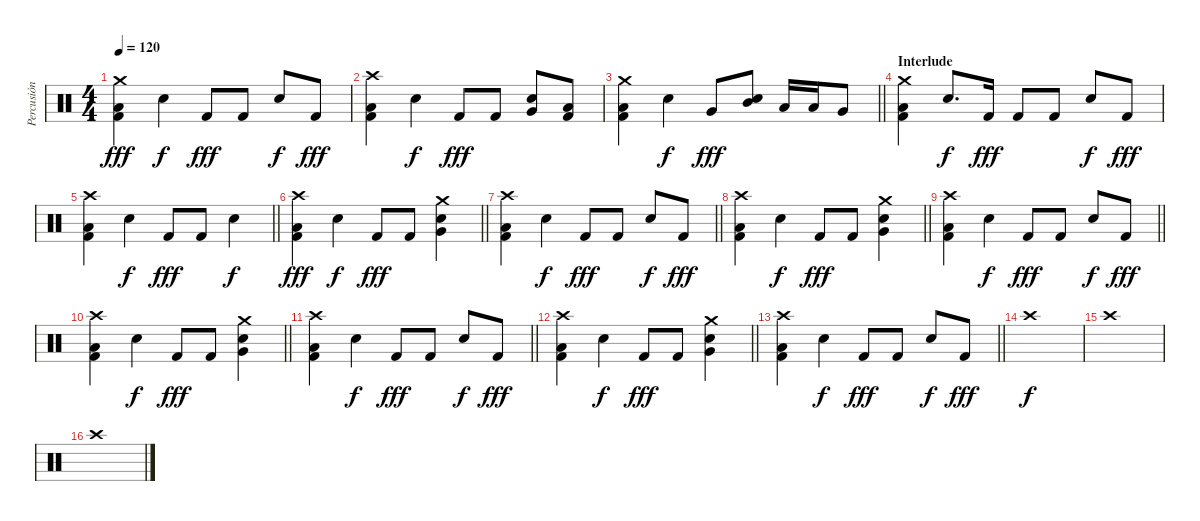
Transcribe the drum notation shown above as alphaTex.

\track ("Percusión" "Percusión") {instrument percussion}
\staff {score}
\articulation defaults
\ts (4 4)
\tempo 120
\clef neutral
\ks c
("Crash medium (hit)" "Low Floor Tom (hit)" "Kick (hit) 2").4{dy fff} "Electric Snare (hit)".4{dy f} "Kick (hit) 2".8{dy fff} "Kick (hit) 2".8 "Electric Snare (hit)".8{dy f} "Kick (hit) 2".8{dy fff} |
("Crash high (hit)" "Low Floor Tom (hit)" "Kick (hit) 2").4 "Electric Snare (hit)".4{dy f} "Kick (hit) 2".8{dy fff} "Kick (hit) 2".8 ("Electric Snare (hit)" "Very Low Tom (hit)").8 ("Low Floor Tom (hit)" "Kick (hit) 2").8 |
\barLineRight lightlight
("Crash medium (hit)" "Low Floor Tom (hit)" "Kick (hit) 2").4 "Electric Snare (hit)".4{dy f} "Very Low Tom (hit)".8{dy fff} ("Mid Tom (hit)" "Electric Snare (hit)").8 "Low Tom (hit)".16 "Low Tom (hit)".16 "Very Low Tom (hit)".8 |
\section ("" "Interlude")
("Crash medium (hit)" "Low Floor Tom (hit)" "Kick (hit) 2").4 "Electric Snare (hit)".8{d dy f} "Kick (hit) 2".16{dy fff} "Kick (hit) 2".8 "Kick (hit) 2".8 "Electric Snare (hit)".8{dy f} "Kick (hit) 2".8{dy fff} |
\barLineRight lightlight
("Crash high (hit)" "Low Floor Tom (hit)" "Kick (hit) 2").4 "Electric Snare (hit)".4{dy f} "Kick (hit) 2".8{dy fff} "Kick (hit) 2".8 "Electric Snare (hit)".4{dy f} |
\barLineRight lightlight
("Crash high (hit)" "Low Floor Tom (hit)" "Kick (hit) 2").4{dy fff} "Electric Snare (hit)".4{dy f} "Kick (hit) 2".8{dy fff} "Kick (hit) 2".8 ("Crash medium (hit)" "Electric Snare (hit)" "Very Low Tom (hit)").4 |
\barLineRight lightlight
("Crash high (hit)" "Low Floor Tom (hit)" "Kick (hit) 2").4 "Electric Snare (hit)".4{dy f} "Kick (hit) 2".8{dy fff} "Kick (hit) 2".8 "Electric Snare (hit)".8{dy f} "Kick (hit) 2".8{dy fff} |
\barLineRight lightlight
("Crash high (hit)" "Low Floor Tom (hit)" "Kick (hit) 2").4 "Electric Snare (hit)".4{dy f} "Kick (hit) 2".8{dy fff} "Kick (hit) 2".8 ("Crash medium (hit)" "Electric Snare (hit)" "Very Low Tom (hit)").4 |
\barLineRight lightlight
("Crash high (hit)" "Low Floor Tom (hit)" "Kick (hit) 2").4 "Electric Snare (hit)".4{dy f} "Kick (hit) 2".8{dy fff} "Kick (hit) 2".8 "Electric Snare (hit)".8{dy f} "Kick (hit) 2".8{dy fff} |
\barLineRight lightlight
("Crash high (hit)" "Low Floor Tom (hit)" "Kick (hit) 2").4 "Electric Snare (hit)".4{dy f} "Kick (hit) 2".8{dy fff} "Kick (hit) 2".8 ("Crash medium (hit)" "Electric Snare (hit)" "Very Low Tom (hit)").4 |
\barLineRight lightlight
("Crash high (hit)" "Low Floor Tom (hit)" "Kick (hit) 2").4 "Electric Snare (hit)".4{dy f} "Kick (hit) 2".8{dy fff} "Kick (hit) 2".8 "Electric Snare (hit)".8{dy f} "Kick (hit) 2".8{dy fff} |
\barLineRight lightlight
("Crash high (hit)" "Low Floor Tom (hit)" "Kick (hit) 2").4 "Electric Snare (hit)".4{dy f} "Kick (hit) 2".8{dy fff} "Kick (hit) 2".8 ("Crash medium (hit)" "Electric Snare (hit)" "Very Low Tom (hit)").4 |
\barLineRight lightlight
("Crash high (hit)" "Low Floor Tom (hit)" "Kick (hit) 2").4 "Electric Snare (hit)".4{dy f} "Kick (hit) 2".8{dy fff} "Kick (hit) 2".8 "Electric Snare (hit)".8{dy f} "Kick (hit) 2".8{dy fff} |
"Crash high (hit)".1{dy f} |
"Crash high (hit)".1 |
"Crash high (hit)".1
